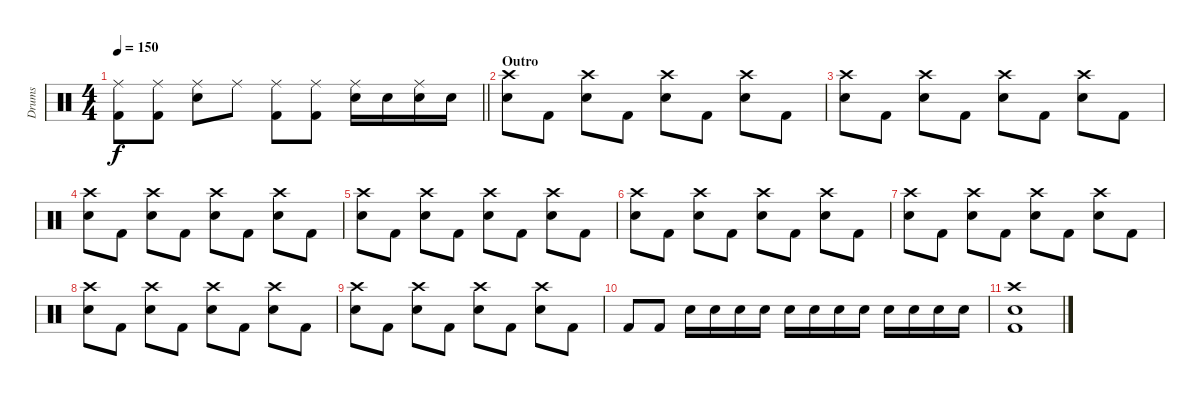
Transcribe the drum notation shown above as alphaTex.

\track ("Drums" "Drums") {instrument percussion}
\staff {score}
\articulation defaults
\ts (4 4)
\tempo 150
\clef neutral
\barLineRight lightlight
\ks c
("Ride (middle)" "Kick (hit) 2").8{dy f} ("Ride (middle)" "Kick (hit) 2").8 ("Ride (middle)" "Snare (hit) 2").8 "Ride (middle)".8 ("Ride (middle)" "Kick (hit) 2").8 ("Ride (middle)" "Kick (hit) 2").8 ("Ride (middle)" "Snare (hit) 2").16 "Snare (hit) 2".16 ("Ride (middle)" "Snare (hit) 2").16 "Snare (hit) 2".16 |
\section ("" "Outro")
("Crash high (hit)" "Snare (hit) 2").8 "Kick (hit) 2".8 ("Crash high (hit)" "Snare (hit) 2").8 "Kick (hit) 2".8 ("Crash high (hit)" "Snare (hit) 2").8 "Kick (hit) 2".8 ("Crash high (hit)" "Snare (hit) 2").8 "Kick (hit) 2".8 |
("Crash high (hit)" "Snare (hit) 2").8 "Kick (hit) 2".8 ("Crash high (hit)" "Snare (hit) 2").8 "Kick (hit) 2".8 ("Crash high (hit)" "Snare (hit) 2").8 "Kick (hit) 2".8 ("Crash high (hit)" "Snare (hit) 2").8 "Kick (hit) 2".8 |
("Crash high (hit)" "Snare (hit) 2").8 "Kick (hit) 2".8 ("Crash high (hit)" "Snare (hit) 2").8 "Kick (hit) 2".8 ("Crash high (hit)" "Snare (hit) 2").8 "Kick (hit) 2".8 ("Crash high (hit)" "Snare (hit) 2").8 "Kick (hit) 2".8 |
("Crash high (hit)" "Snare (hit) 2").8 "Kick (hit) 2".8 ("Crash high (hit)" "Snare (hit) 2").8 "Kick (hit) 2".8 ("Crash high (hit)" "Snare (hit) 2").8 "Kick (hit) 2".8 ("Crash high (hit)" "Snare (hit) 2").8 "Kick (hit) 2".8 |
("Crash high (hit)" "Snare (hit) 2").8 "Kick (hit) 2".8 ("Crash high (hit)" "Snare (hit) 2").8 "Kick (hit) 2".8 ("Crash high (hit)" "Snare (hit) 2").8 "Kick (hit) 2".8 ("Crash high (hit)" "Snare (hit) 2").8 "Kick (hit) 2".8 |
("Crash high (hit)" "Snare (hit) 2").8 "Kick (hit) 2".8 ("Crash high (hit)" "Snare (hit) 2").8 "Kick (hit) 2".8 ("Crash high (hit)" "Snare (hit) 2").8 "Kick (hit) 2".8 ("Crash high (hit)" "Snare (hit) 2").8 "Kick (hit) 2".8 |
("Crash high (hit)" "Snare (hit) 2").8 "Kick (hit) 2".8 ("Crash high (hit)" "Snare (hit) 2").8 "Kick (hit) 2".8 ("Crash high (hit)" "Snare (hit) 2").8 "Kick (hit) 2".8 ("Crash high (hit)" "Snare (hit) 2").8 "Kick (hit) 2".8 |
("Crash high (hit)" "Snare (hit) 2").8 "Kick (hit) 2".8 ("Crash high (hit)" "Snare (hit) 2").8 "Kick (hit) 2".8 ("Crash high (hit)" "Snare (hit) 2").8 "Kick (hit) 2".8 ("Crash high (hit)" "Snare (hit) 2").8 "Kick (hit) 2".8 |
"Kick (hit) 2".8 "Kick (hit) 2".8 "Snare (hit) 2".16 "Snare (hit) 2".16 "Snare (hit) 2".16 "Snare (hit) 2".16 "Snare (hit) 2".16 "Snare (hit) 2".16 "Snare (hit) 2".16 "Snare (hit) 2".16 "Snare (hit) 2".16 "Snare (hit) 2".16 "Snare (hit) 2".16 "Snare (hit) 2".16 |
("Crash high (hit)" "Snare (hit) 2" "Kick (hit) 2").1
